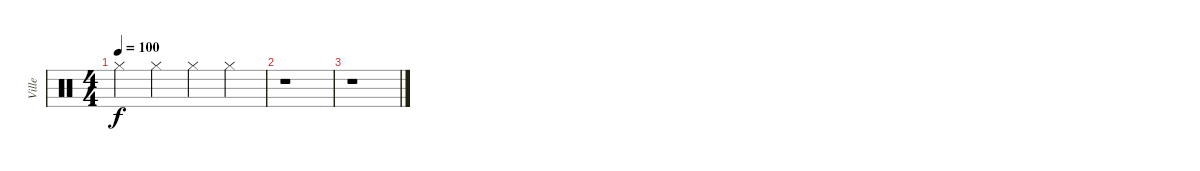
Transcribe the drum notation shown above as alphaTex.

\track ("Ville" "Ville") {instrument percussion}
\staff {score}
\articulation defaults
\ts (4 4)
\tempo 100
\clef neutral
\ks c "Hi-Hat (closed)".4{dy f} "Hi-Hat (closed)".4 "Hi-Hat (closed)".4 "Hi-Hat (closed)".4
|
r.1 |
r.1
